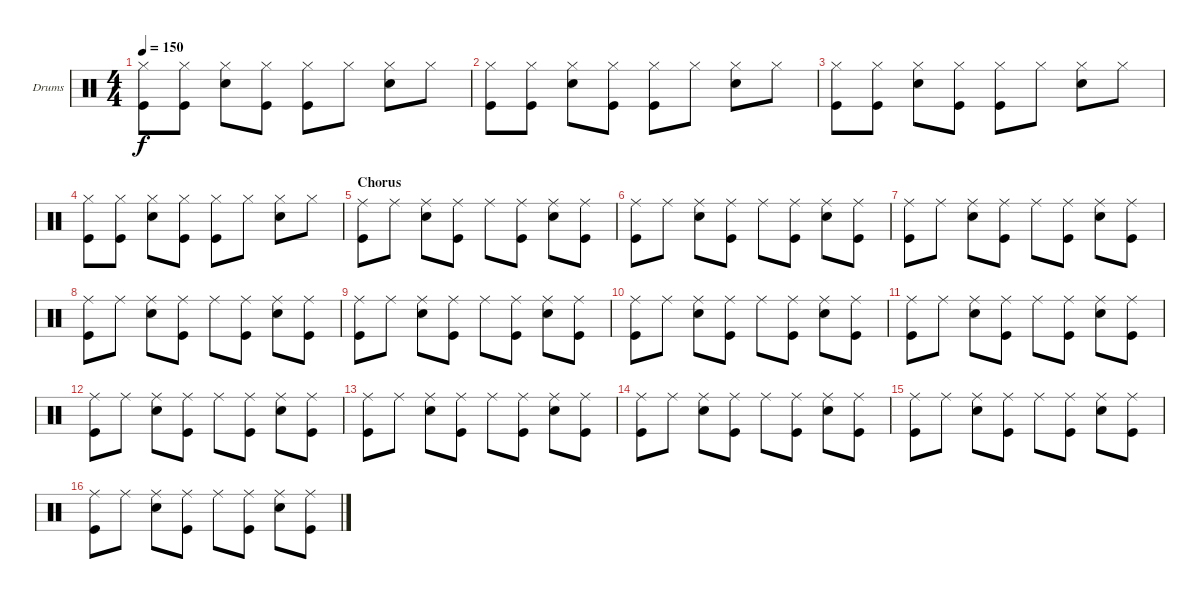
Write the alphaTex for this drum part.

\bracketExtendMode groupsimilarinstruments
\firstSystemTrackNameOrientation horizontal
\otherSystemsTrackNameOrientation horizontal
\track ("Fabrizio" "Drums") {instrument percussion}
\staff {score}
\articulation defaults
\ts (4 4)
\tempo 150
\clef neutral
\ks c
("Hi-Hat (closed)" "Kick (hit)").8{dy f} ("Hi-Hat (closed)" "Kick (hit)").8 ("Hi-Hat (closed)" "Snare (hit) 2").8 ("Hi-Hat (closed)" "Kick (hit)").8 ("Hi-Hat (closed)" "Kick (hit)").8 "Hi-Hat (closed)".8 ("Hi-Hat (closed)" "Snare (hit) 2").8 "Hi-Hat (closed)".8 |
("Hi-Hat (closed)" "Kick (hit)").8 ("Hi-Hat (closed)" "Kick (hit)").8 ("Hi-Hat (closed)" "Snare (hit) 2").8 ("Hi-Hat (closed)" "Kick (hit)").8 ("Hi-Hat (closed)" "Kick (hit)").8 "Hi-Hat (closed)".8 ("Hi-Hat (closed)" "Snare (hit) 2").8 "Hi-Hat (closed)".8 |
("Hi-Hat (closed)" "Kick (hit)").8 ("Hi-Hat (closed)" "Kick (hit)").8 ("Hi-Hat (closed)" "Snare (hit) 2").8 ("Hi-Hat (closed)" "Kick (hit)").8 ("Hi-Hat (closed)" "Kick (hit)").8 "Hi-Hat (closed)".8 ("Hi-Hat (closed)" "Snare (hit) 2").8 "Hi-Hat (closed)".8 |
("Hi-Hat (closed)" "Kick (hit)").8 ("Hi-Hat (closed)" "Kick (hit)").8 ("Hi-Hat (closed)" "Snare (hit) 2").8 ("Hi-Hat (closed)" "Kick (hit)").8 ("Hi-Hat (closed)" "Kick (hit)").8 "Hi-Hat (closed)".8 ("Hi-Hat (closed)" "Snare (hit) 2").8 "Hi-Hat (closed)".8 |
\section ("" "Chorus")
("Ride (middle)" "Kick (hit)").8 "Ride (middle)".8 ("Ride (middle)" "Snare (hit) 2").8 ("Ride (middle)" "Kick (hit)").8 "Ride (middle)".8 ("Ride (middle)" "Kick (hit)").8 ("Ride (middle)" "Snare (hit) 2").8 ("Ride (middle)" "Kick (hit)").8 |
("Ride (middle)" "Kick (hit)").8 "Ride (middle)".8 ("Ride (middle)" "Snare (hit) 2").8 ("Ride (middle)" "Kick (hit)").8 "Ride (middle)".8 ("Ride (middle)" "Kick (hit)").8 ("Ride (middle)" "Snare (hit) 2").8 ("Ride (middle)" "Kick (hit)").8 |
("Ride (middle)" "Kick (hit)").8 "Ride (middle)".8 ("Ride (middle)" "Snare (hit) 2").8 ("Ride (middle)" "Kick (hit)").8 "Ride (middle)".8 ("Ride (middle)" "Kick (hit)").8 ("Ride (middle)" "Snare (hit) 2").8 ("Ride (middle)" "Kick (hit)").8 |
("Ride (middle)" "Kick (hit)").8 "Ride (middle)".8 ("Ride (middle)" "Snare (hit) 2").8 ("Ride (middle)" "Kick (hit)").8 "Ride (middle)".8 ("Ride (middle)" "Kick (hit)").8 ("Ride (middle)" "Snare (hit) 2").8 ("Ride (middle)" "Kick (hit)").8 |
("Ride (middle)" "Kick (hit)").8 "Ride (middle)".8 ("Ride (middle)" "Snare (hit) 2").8 ("Ride (middle)" "Kick (hit)").8 "Ride (middle)".8 ("Ride (middle)" "Kick (hit)").8 ("Ride (middle)" "Snare (hit) 2").8 ("Ride (middle)" "Kick (hit)").8 |
("Ride (middle)" "Kick (hit)").8 "Ride (middle)".8 ("Ride (middle)" "Snare (hit) 2").8 ("Ride (middle)" "Kick (hit)").8 "Ride (middle)".8 ("Ride (middle)" "Kick (hit)").8 ("Ride (middle)" "Snare (hit) 2").8 ("Ride (middle)" "Kick (hit)").8 |
("Ride (middle)" "Kick (hit)").8 "Ride (middle)".8 ("Ride (middle)" "Snare (hit) 2").8 ("Ride (middle)" "Kick (hit)").8 "Ride (middle)".8 ("Ride (middle)" "Kick (hit)").8 ("Ride (middle)" "Snare (hit) 2").8 ("Ride (middle)" "Kick (hit)").8 |
("Ride (middle)" "Kick (hit)").8 "Ride (middle)".8 ("Ride (middle)" "Snare (hit) 2").8 ("Ride (middle)" "Kick (hit)").8 "Ride (middle)".8 ("Ride (middle)" "Kick (hit)").8 ("Ride (middle)" "Snare (hit) 2").8 ("Ride (middle)" "Kick (hit)").8 |
("Ride (middle)" "Kick (hit)").8 "Ride (middle)".8 ("Ride (middle)" "Snare (hit) 2").8 ("Ride (middle)" "Kick (hit)").8 "Ride (middle)".8 ("Ride (middle)" "Kick (hit)").8 ("Ride (middle)" "Snare (hit) 2").8 ("Ride (middle)" "Kick (hit)").8 |
("Ride (middle)" "Kick (hit)").8 "Ride (middle)".8 ("Ride (middle)" "Snare (hit) 2").8 ("Ride (middle)" "Kick (hit)").8 "Ride (middle)".8 ("Ride (middle)" "Kick (hit)").8 ("Ride (middle)" "Snare (hit) 2").8 ("Ride (middle)" "Kick (hit)").8 |
("Ride (middle)" "Kick (hit)").8 "Ride (middle)".8 ("Ride (middle)" "Snare (hit) 2").8 ("Ride (middle)" "Kick (hit)").8 "Ride (middle)".8 ("Ride (middle)" "Kick (hit)").8 ("Ride (middle)" "Snare (hit) 2").8 ("Ride (middle)" "Kick (hit)").8 |
("Ride (middle)" "Kick (hit)").8 "Ride (middle)".8 ("Ride (middle)" "Snare (hit) 2").8 ("Ride (middle)" "Kick (hit)").8 "Ride (middle)".8 ("Ride (middle)" "Kick (hit)").8 ("Ride (middle)" "Snare (hit) 2").8 ("Ride (middle)" "Kick (hit)").8
